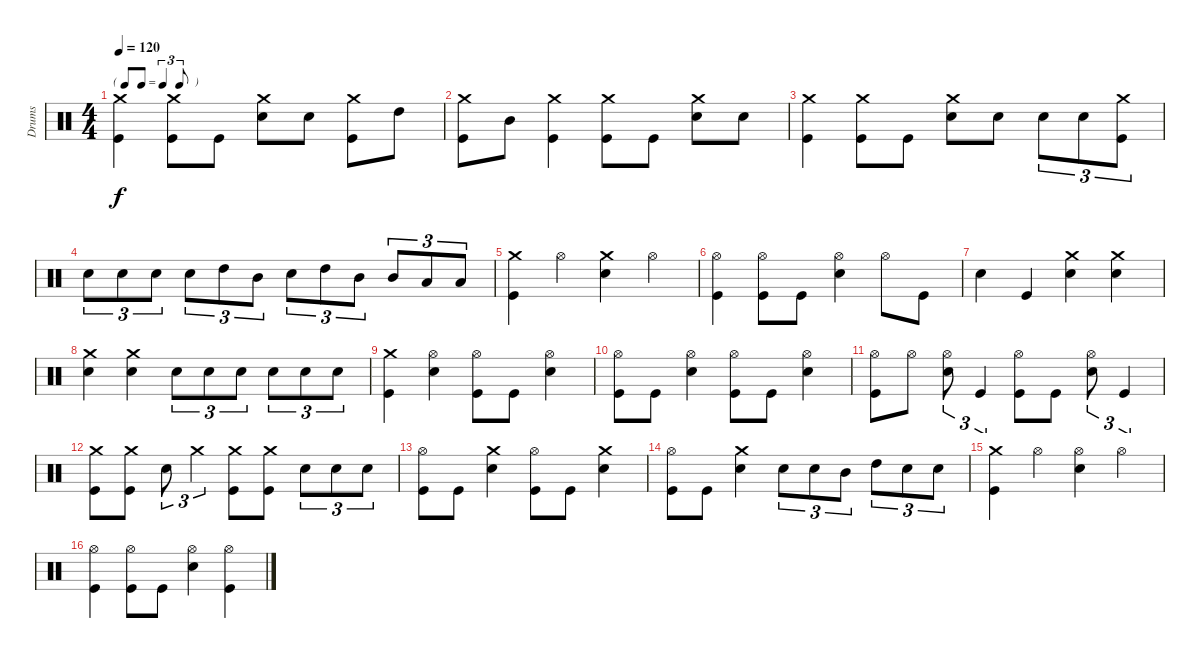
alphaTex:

\track ("Drums" "Drums") {instrument percussion}
\staff {score}
\articulation defaults
\ts (4 4)
\tf triplet8th
\tempo 120
\clef neutral
\ks c
("Kick (hit)" "Crash medium (hit)").4{dy f} ("Kick (hit)" "Crash medium (hit)").8 "Kick (hit)".8 ("Electric Snare (hit)" "Crash medium (hit)").8 "Electric Snare (hit)".8 ("Kick (hit)" "Crash medium (hit)").8 "High Tom (hit)".8 |
("Kick (hit)" "Crash medium (hit)").8 "Mid Tom (hit)".8 ("Kick (hit)" "Crash medium (hit)").4 ("Kick (hit)" "Crash medium (hit)").8 "Kick (hit)".8 ("Electric Snare (hit)" "Crash medium (hit)").8 "Electric Snare (hit)".8 |
("Kick (hit)" "Crash medium (hit)").4 ("Kick (hit)" "Crash medium (hit)").8 "Kick (hit)".8 ("Electric Snare (hit)" "Crash medium (hit)").8 "Electric Snare (hit)".8 "Electric Snare (hit)".8{tu (3 2)} "Electric Snare (hit)".8{tu (3 2)} ("Kick (hit)" "Crash medium (hit)").8{tu (3 2)} |
"Electric Snare (hit)".8{tu (3 2)} "Electric Snare (hit)".8{tu (3 2)} "Electric Snare (hit)".8{tu (3 2)} "Electric Snare (hit)".8{tu (3 2)} "High Tom (hit)".8{tu (3 2)} "Mid Tom (hit)".8{tu (3 2)} "Electric Snare (hit)".8{tu (3 2)} "High Tom (hit)".8{tu (3 2)} "Mid Tom (hit)".8{tu (3 2)} "Mid Tom (hit)".8{tu (3 2)} "Low Tom (hit)".8{tu (3 2)} "Low Tom (hit)".8{tu (3 2)} |
("Kick (hit)" "Crash medium (hit)").4 "Hi-Hat (open)".4 ("Electric Snare (hit)" "Crash medium (hit)").4 "Hi-Hat (open)".4 |
("Kick (hit)" "Hi-Hat (open)").4 ("Kick (hit)" "Hi-Hat (open)").8 "Kick (hit)".8 ("Electric Snare (hit)" "Hi-Hat (open)").4 "Hi-Hat (open)".8 "Kick (hit)".8 |
"Electric Snare (hit)".4 "Kick (hit)".4 ("Electric Snare (hit)" "Crash medium (hit)").4 ("Electric Snare (hit)" "Crash medium (hit)").4 |
("Electric Snare (hit)" "Crash medium (hit)").4 ("Electric Snare (hit)" "Crash medium (hit)").4 "Electric Snare (hit)".8{tu (3 2)} "Electric Snare (hit)".8{tu (3 2)} "Electric Snare (hit)".8{tu (3 2)} "Electric Snare (hit)".8{tu (3 2)} "Electric Snare (hit)".8{tu (3 2)} "Electric Snare (hit)".8{tu (3 2)} |
("Kick (hit)" "Crash medium (hit)").4 ("Electric Snare (hit)" "Hi-Hat (open)").4 ("Kick (hit)" "Hi-Hat (open)").8 "Kick (hit)".8 ("Electric Snare (hit)" "Hi-Hat (open)").4 |
("Kick (hit)" "Hi-Hat (open)").8 "Kick (hit)".8 ("Electric Snare (hit)" "Hi-Hat (open)").4 ("Kick (hit)" "Hi-Hat (open)").8 "Kick (hit)".8 ("Electric Snare (hit)" "Hi-Hat (open)").4 |
("Kick (hit)" "Hi-Hat (open)").8 "Hi-Hat (open)".8 ("Electric Snare (hit)" "Hi-Hat (open)").8{tu (3 2)} "Kick (hit)".4{tu (3 2)} ("Kick (hit)" "Hi-Hat (open)").8 "Kick (hit)".8 ("Electric Snare (hit)" "Hi-Hat (open)").8{tu (3 2)} "Kick (hit)".4{tu (3 2)} |
("Kick (hit)" "Crash medium (hit)").8 ("Kick (hit)" "Crash medium (hit)").8 "Electric Snare (hit)".8{tu (3 2)} "Crash medium (hit)".4{tu (3 2)} ("Kick (hit)" "Crash medium (hit)").8 ("Kick (hit)" "Crash medium (hit)").8 "Electric Snare (hit)".8{tu (3 2)} "Electric Snare (hit)".8{tu (3 2)} "Electric Snare (hit)".8{tu (3 2)} |
("Kick (hit)" "Hi-Hat (open)").8 "Kick (hit)".8 ("Electric Snare (hit)" "Crash medium (hit)").4 ("Kick (hit)" "Hi-Hat (open)").8 "Kick (hit)".8 ("Electric Snare (hit)" "Crash medium (hit)").4 |
("Kick (hit)" "Hi-Hat (open)").8 "Kick (hit)".8 ("Electric Snare (hit)" "Crash medium (hit)").4 "Electric Snare (hit)".8{tu (3 2)} "Electric Snare (hit)".8{tu (3 2)} "Mid Tom (hit)".8{tu (3 2)} "High Tom (hit)".8{tu (3 2)} "Electric Snare (hit)".8{tu (3 2)} "Electric Snare (hit)".8{tu (3 2)} |
("Kick (hit)" "Crash medium (hit)").4 "Hi-Hat (open)".4 ("Electric Snare (hit)" "Hi-Hat (open)").4 "Hi-Hat (open)".4 |
("Kick (hit)" "Hi-Hat (open)").4 ("Kick (hit)" "Hi-Hat (open)").8 "Kick (hit)".8 ("Electric Snare (hit)" "Hi-Hat (open)").4 ("Kick (hit)" "Hi-Hat (open)").4
